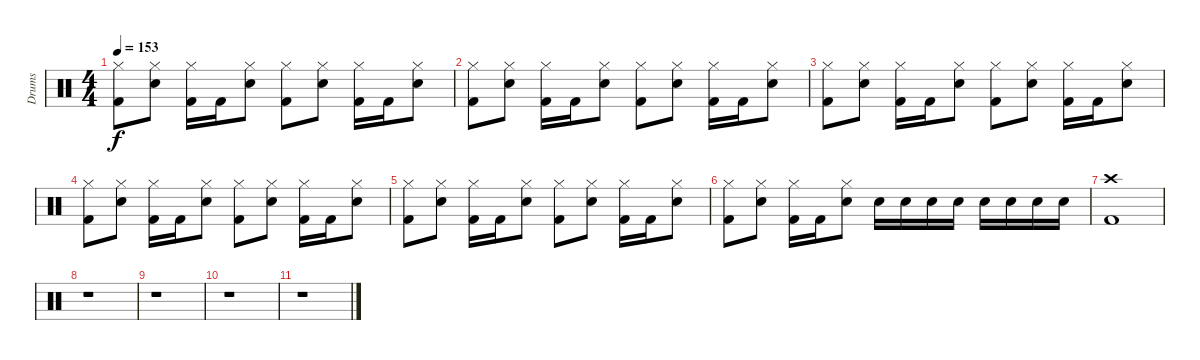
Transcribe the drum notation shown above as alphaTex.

\track ("Drums" "Drums") {instrument percussion}
\staff {score}
\articulation defaults
\ts (4 4)
\tempo 153
\clef neutral
\ks c
("Hi-Hat (closed)" "Kick (hit) 2").8{dy f} ("Hi-Hat (closed)" "Snare (hit) 2").8 ("Hi-Hat (closed)" "Kick (hit) 2").16 "Kick (hit) 2".16 ("Hi-Hat (closed)" "Snare (hit) 2").8 ("Hi-Hat (closed)" "Kick (hit) 2").8 ("Hi-Hat (closed)" "Snare (hit) 2").8 ("Hi-Hat (closed)" "Kick (hit) 2").16 "Kick (hit) 2".16 ("Hi-Hat (closed)" "Snare (hit) 2").8 |
("Hi-Hat (closed)" "Kick (hit) 2").8 ("Hi-Hat (closed)" "Snare (hit) 2").8 ("Hi-Hat (closed)" "Kick (hit) 2").16 "Kick (hit) 2".16 ("Hi-Hat (closed)" "Snare (hit) 2").8 ("Hi-Hat (closed)" "Kick (hit) 2").8 ("Hi-Hat (closed)" "Snare (hit) 2").8 ("Hi-Hat (closed)" "Kick (hit) 2").16 "Kick (hit) 2".16 ("Hi-Hat (closed)" "Snare (hit) 2").8 |
("Hi-Hat (closed)" "Kick (hit) 2").8 ("Hi-Hat (closed)" "Snare (hit) 2").8 ("Hi-Hat (closed)" "Kick (hit) 2").16 "Kick (hit) 2".16 ("Hi-Hat (closed)" "Snare (hit) 2").8 ("Hi-Hat (closed)" "Kick (hit) 2").8 ("Hi-Hat (closed)" "Snare (hit) 2").8 ("Hi-Hat (closed)" "Kick (hit) 2").16 "Kick (hit) 2".16 ("Hi-Hat (closed)" "Snare (hit) 2").8 |
("Hi-Hat (closed)" "Kick (hit) 2").8 ("Hi-Hat (closed)" "Snare (hit) 2").8 ("Hi-Hat (closed)" "Kick (hit) 2").16 "Kick (hit) 2".16 ("Hi-Hat (closed)" "Snare (hit) 2").8 ("Hi-Hat (closed)" "Kick (hit) 2").8 ("Hi-Hat (closed)" "Snare (hit) 2").8 ("Hi-Hat (closed)" "Kick (hit) 2").16 "Kick (hit) 2".16 ("Hi-Hat (closed)" "Snare (hit) 2").8 |
("Hi-Hat (closed)" "Kick (hit) 2").8 ("Hi-Hat (closed)" "Snare (hit) 2").8 ("Hi-Hat (closed)" "Kick (hit) 2").16 "Kick (hit) 2".16 ("Hi-Hat (closed)" "Snare (hit) 2").8 ("Hi-Hat (closed)" "Kick (hit) 2").8 ("Hi-Hat (closed)" "Snare (hit) 2").8 ("Hi-Hat (closed)" "Kick (hit) 2").16 "Kick (hit) 2".16 ("Hi-Hat (closed)" "Snare (hit) 2").8 |
("Hi-Hat (closed)" "Kick (hit) 2").8 ("Hi-Hat (closed)" "Snare (hit) 2").8 ("Hi-Hat (closed)" "Kick (hit) 2").16 "Kick (hit) 2".16 ("Hi-Hat (closed)" "Snare (hit) 2").8 "Snare (hit) 2".16 "Snare (hit) 2".16 "Snare (hit) 2".16 "Snare (hit) 2".16 "Snare (hit) 2".16 "Snare (hit) 2".16 "Snare (hit) 2".16 "Snare (hit) 2".16 |
("Crash high (hit)" "Kick (hit) 2").1 |
r.1 |
r.1 |
r.1 |
r.1
